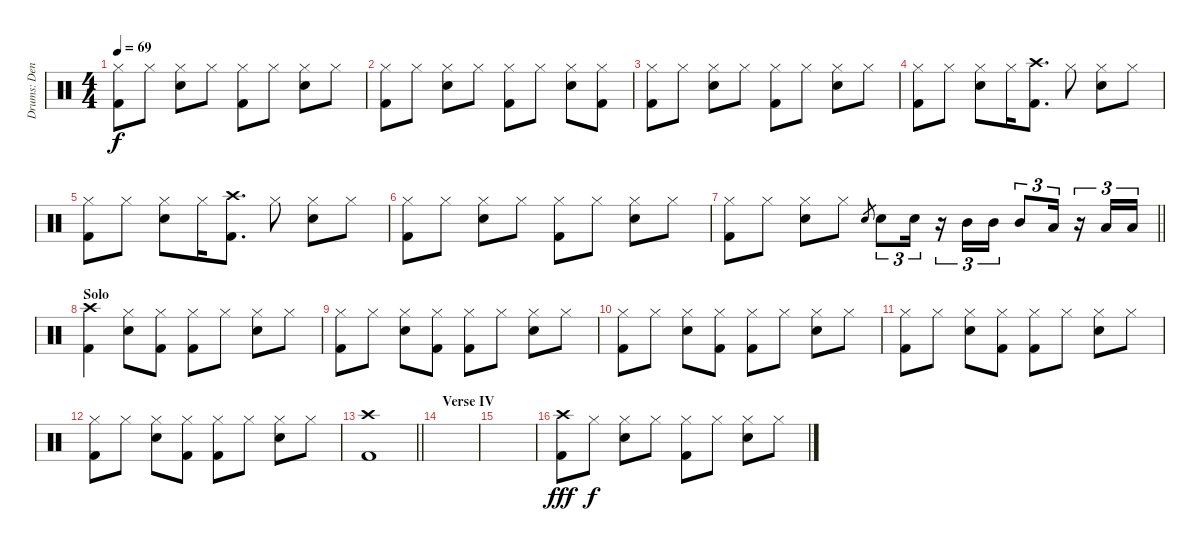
\track ("Drums: Denny" "Drums: Den") {instrument percussion}
\staff {score}
\articulation defaults
\ts (4 4)
\tempo 69
\clef neutral
\ks c
("Hi-Hat (closed)" "Kick (hit) 2").8{dy f} "Hi-Hat (closed)".8 ("Hi-Hat (closed)" "Snare (hit) 2").8 "Hi-Hat (closed)".8 ("Hi-Hat (closed)" "Kick (hit) 2").8 "Hi-Hat (closed)".8 ("Hi-Hat (closed)" "Snare (hit) 2").8 "Hi-Hat (closed)".8 |
("Hi-Hat (closed)" "Kick (hit) 2").8 "Hi-Hat (closed)".8 ("Hi-Hat (closed)" "Snare (hit) 2").8 "Hi-Hat (closed)".8 ("Hi-Hat (closed)" "Kick (hit) 2").8 "Hi-Hat (closed)".8 ("Hi-Hat (closed)" "Snare (hit) 2").8 ("Hi-Hat (closed)" "Kick (hit) 2").8 |
("Hi-Hat (closed)" "Kick (hit) 2").8 "Hi-Hat (closed)".8 ("Hi-Hat (closed)" "Snare (hit) 2").8 "Hi-Hat (closed)".8 ("Hi-Hat (closed)" "Kick (hit) 2").8 "Hi-Hat (closed)".8 ("Hi-Hat (closed)" "Snare (hit) 2").8 "Hi-Hat (closed)".8 |
("Hi-Hat (closed)" "Kick (hit) 2").8 "Hi-Hat (closed)".8 ("Hi-Hat (closed)" "Snare (hit) 2").8 "Hi-Hat (closed)".16 ("Crash high (hit)" "Kick (hit) 2").8{d} "Hi-Hat (closed)".8 ("Hi-Hat (closed)" "Snare (hit) 2").8 "Hi-Hat (closed)".8 |
("Hi-Hat (closed)" "Kick (hit) 2").8 "Hi-Hat (closed)".8 ("Hi-Hat (closed)" "Snare (hit) 2").8 "Hi-Hat (closed)".16 ("Crash high (hit)" "Kick (hit) 2").8{d} "Hi-Hat (closed)".8 ("Hi-Hat (closed)" "Snare (hit) 2").8 "Hi-Hat (closed)".8 |
("Hi-Hat (closed)" "Kick (hit) 2").8 "Hi-Hat (closed)".8 ("Hi-Hat (closed)" "Snare (hit) 2").8 "Hi-Hat (closed)".8 ("Hi-Hat (closed)" "Kick (hit) 2").8 "Hi-Hat (closed)".8 ("Hi-Hat (closed)" "Snare (hit) 2").8 "Hi-Hat (closed)".8 |
\barLineRight lightlight
("Hi-Hat (closed)" "Kick (hit) 2").8 "Hi-Hat (closed)".8 ("Hi-Hat (closed)" "Snare (hit) 2").8 "Hi-Hat (closed)".8 "Snare (hit) 2".8{gr} "Electric Snare (hit)".8{tu (3 2)} "Electric Snare (hit)".16{tu (3 2)} r.16{tu (3 2)} "Mid Tom (hit)".16{tu (3 2)} "Mid Tom (hit)".16{tu (3 2)} "Mid Tom (hit)".8{tu (3 2)} "Low Tom (hit)".16{tu (3 2)} r.16{tu (3 2)} "Low Tom (hit)".16{tu (3 2)} "Low Tom (hit)".16{tu (3 2)} |
\section ("" "Solo")
("Crash high (hit)" "Kick (hit) 2").4 ("Hi-Hat (closed)" "Snare (hit) 2").8 ("Hi-Hat (closed)" "Kick (hit) 2").8 ("Hi-Hat (closed)" "Kick (hit) 2").8 "Hi-Hat (closed)".8 ("Hi-Hat (closed)" "Snare (hit) 2").8 "Hi-Hat (closed)".8 |
("Hi-Hat (closed)" "Kick (hit) 2").8 "Hi-Hat (closed)".8 ("Hi-Hat (closed)" "Snare (hit) 2").8 ("Hi-Hat (closed)" "Kick (hit) 2").8 ("Hi-Hat (closed)" "Kick (hit) 2").8 "Hi-Hat (closed)".8 ("Hi-Hat (closed)" "Snare (hit) 2").8 "Hi-Hat (closed)".8 |
("Hi-Hat (closed)" "Kick (hit) 2").8 "Hi-Hat (closed)".8 ("Hi-Hat (closed)" "Snare (hit) 2").8 ("Hi-Hat (closed)" "Kick (hit) 2").8 ("Hi-Hat (closed)" "Kick (hit) 2").8 "Hi-Hat (closed)".8 ("Hi-Hat (closed)" "Snare (hit) 2").8 "Hi-Hat (closed)".8 |
("Hi-Hat (closed)" "Kick (hit) 2").8 "Hi-Hat (closed)".8 ("Hi-Hat (closed)" "Snare (hit) 2").8 ("Hi-Hat (closed)" "Kick (hit) 2").8 ("Hi-Hat (closed)" "Kick (hit) 2").8 "Hi-Hat (closed)".8 ("Hi-Hat (closed)" "Snare (hit) 2").8 "Hi-Hat (closed)".8 |
("Hi-Hat (closed)" "Kick (hit) 2").8 "Hi-Hat (closed)".8 ("Hi-Hat (closed)" "Snare (hit) 2").8 ("Hi-Hat (closed)" "Kick (hit) 2").8 ("Hi-Hat (closed)" "Kick (hit) 2").8 "Hi-Hat (closed)".8 ("Hi-Hat (closed)" "Snare (hit) 2").8 "Hi-Hat (closed)".8 |
\barLineRight lightlight
("Crash high (hit)" "Kick (hit) 2").1 |
\section ("" "Verse IV")
|
|
("Crash high (hit)" "Kick (hit) 2").8{dy fff} "Hi-Hat (closed)".8{dy f} ("Hi-Hat (closed)" "Snare (hit) 2").8 "Hi-Hat (closed)".8 ("Hi-Hat (closed)" "Kick (hit) 2").8 "Hi-Hat (closed)".8 ("Hi-Hat (closed)" "Snare (hit) 2").8 "Hi-Hat (closed)".8
